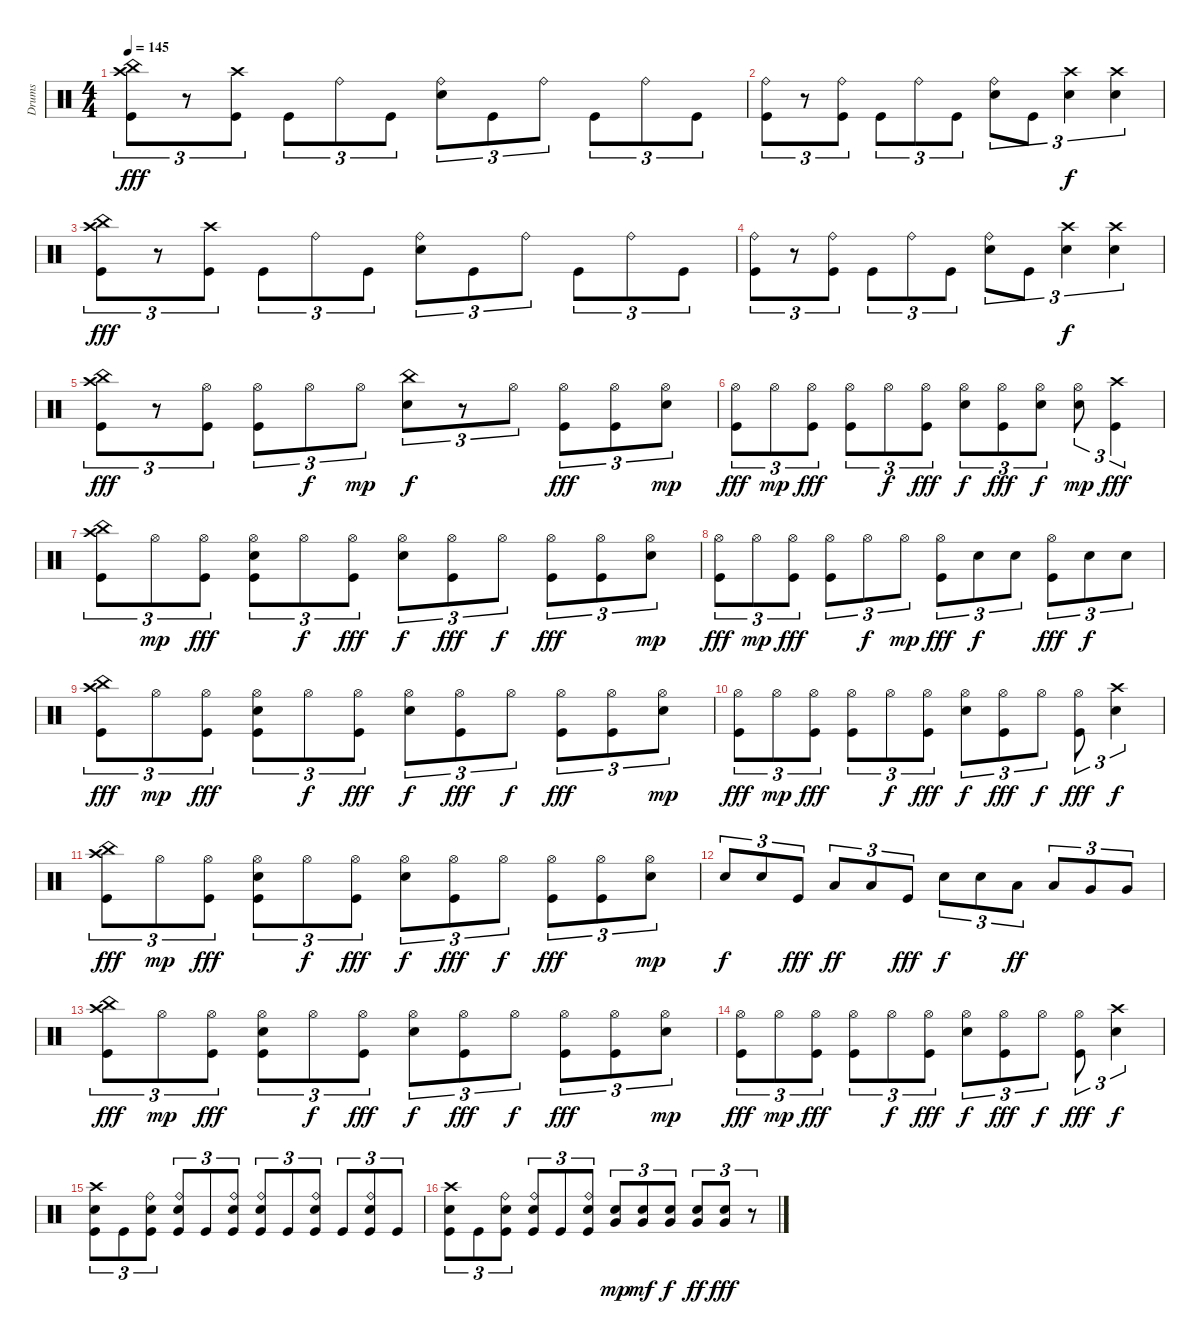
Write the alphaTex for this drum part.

\track ("Drums" "Drums") {instrument percussion}
\staff {score}
\articulation defaults
\ts (4 4)
\tempo 145
\clef neutral
\ks c
("Crash high (hit)" "China (hit)" "Kick (hit)").8{tu (3 2) dy fff} r.8{tu (3 2)} ("Crash high (hit)" "Kick (hit)").8{tu (3 2)} "Kick (hit)".8{tu (3 2)} "Ride (bell)".8{tu (3 2)} "Kick (hit)".8{tu (3 2)} ("Ride (bell)" "Electric Snare (hit)").8{tu (3 2)} "Kick (hit)".8{tu (3 2)} "Ride (bell)".8{tu (3 2)} "Kick (hit)".8{tu (3 2)} "Ride (bell)".8{tu (3 2)} "Kick (hit)".8{tu (3 2)} |
("Ride (bell)" "Kick (hit)").8{tu (3 2)} r.8{tu (3 2)} ("Ride (bell)" "Kick (hit)").8{tu (3 2)} "Kick (hit)".8{tu (3 2)} "Ride (bell)".8{tu (3 2)} "Kick (hit)".8{tu (3 2)} ("Ride (bell)" "Electric Snare (hit)").8{tu (3 2)} "Kick (hit)".8{tu (3 2)} ("Crash high (hit)" "Electric Snare (hit)").4{tu (3 2) dy f} ("Crash high (hit)" "Electric Snare (hit)").4{tu (3 2)} |
("Crash high (hit)" "China (hit)" "Kick (hit)").8{tu (3 2) dy fff} r.8{tu (3 2)} ("Crash high (hit)" "Kick (hit)").8{tu (3 2)} "Kick (hit)".8{tu (3 2)} "Ride (bell)".8{tu (3 2)} "Kick (hit)".8{tu (3 2)} ("Ride (bell)" "Electric Snare (hit)").8{tu (3 2)} "Kick (hit)".8{tu (3 2)} "Ride (bell)".8{tu (3 2)} "Kick (hit)".8{tu (3 2)} "Ride (bell)".8{tu (3 2)} "Kick (hit)".8{tu (3 2)} |
("Ride (bell)" "Kick (hit)").8{tu (3 2)} r.8{tu (3 2)} ("Ride (bell)" "Kick (hit)").8{tu (3 2)} "Kick (hit)".8{tu (3 2)} "Ride (bell)".8{tu (3 2)} "Kick (hit)".8{tu (3 2)} ("Ride (bell)" "Electric Snare (hit)").8{tu (3 2)} "Kick (hit)".8{tu (3 2)} ("Crash high (hit)" "Electric Snare (hit)").4{tu (3 2) dy f} ("Crash high (hit)" "Electric Snare (hit)").4{tu (3 2)} |
("Crash high (hit)" "China (hit)" "Kick (hit)").8{tu (3 2) dy fff} r.8{tu (3 2)} ("Hi-Hat (open)" "Kick (hit)").8{tu (3 2)} ("Hi-Hat (open)" "Kick (hit)").8{tu (3 2)} "Hi-Hat (open)".8{tu (3 2) dy f} "Hi-Hat (open)".8{tu (3 2) dy mp} ("China (hit)" "Electric Snare (hit)").8{tu (3 2) dy f} r.8{tu (3 2)} "Hi-Hat (open)".8{tu (3 2)} ("Hi-Hat (open)" "Kick (hit)").8{tu (3 2) dy fff} ("Hi-Hat (open)" "Kick (hit)").8{tu (3 2)} ("Hi-Hat (open)" "Electric Snare (hit)").8{tu (3 2) dy mp} |
("Hi-Hat (open)" "Kick (hit)").8{tu (3 2) dy fff} "Hi-Hat (open)".8{tu (3 2) dy mp} ("Hi-Hat (open)" "Kick (hit)").8{tu (3 2) dy fff} ("Hi-Hat (open)" "Kick (hit)").8{tu (3 2)} "Hi-Hat (open)".8{tu (3 2) dy f} ("Hi-Hat (open)" "Kick (hit)").8{tu (3 2) dy fff} ("Hi-Hat (open)" "Electric Snare (hit)").8{tu (3 2) dy f} ("Hi-Hat (open)" "Kick (hit)").8{tu (3 2) dy fff} ("Hi-Hat (open)" "Electric Snare (hit)").8{tu (3 2) dy f} ("Hi-Hat (open)" "Electric Snare (hit)").8{tu (3 2) dy mp} ("Crash high (hit)" "Kick (hit)").4{tu (3 2) dy fff} |
("Crash high (hit)" "China (hit)" "Kick (hit)").8{tu (3 2)} "Hi-Hat (open)".8{tu (3 2) dy mp} ("Hi-Hat (open)" "Kick (hit)").8{tu (3 2) dy fff} ("Hi-Hat (open)" "Snare (hit)" "Kick (hit)").8{tu (3 2)} "Hi-Hat (open)".8{tu (3 2) dy f} ("Hi-Hat (open)" "Kick (hit)").8{tu (3 2) dy fff} ("Hi-Hat (open)" "Electric Snare (hit)").8{tu (3 2) dy f} ("Hi-Hat (open)" "Kick (hit)").8{tu (3 2) dy fff} "Hi-Hat (open)".8{tu (3 2) dy f} ("Hi-Hat (open)" "Kick (hit)").8{tu (3 2) dy fff} ("Hi-Hat (open)" "Kick (hit)").8{tu (3 2)} ("Hi-Hat (open)" "Electric Snare (hit)").8{tu (3 2) dy mp} |
("Hi-Hat (open)" "Kick (hit)").8{tu (3 2) dy fff} "Hi-Hat (open)".8{tu (3 2) dy mp} ("Hi-Hat (open)" "Kick (hit)").8{tu (3 2) dy fff} ("Hi-Hat (open)" "Kick (hit)").8{tu (3 2)} "Hi-Hat (open)".8{tu (3 2) dy f} "Hi-Hat (open)".8{tu (3 2) dy mp} ("Hi-Hat (open)" "Kick (hit)").8{tu (3 2) dy fff} "Electric Snare (hit)".8{tu (3 2) dy f} "Electric Snare (hit)".8{tu (3 2)} ("Hi-Hat (open)" "Kick (hit)").8{tu (3 2) dy fff} "Electric Snare (hit)".8{tu (3 2) dy f} "Electric Snare (hit)".8{tu (3 2)} |
("Crash high (hit)" "China (hit)" "Kick (hit)").8{tu (3 2) dy fff} "Hi-Hat (open)".8{tu (3 2) dy mp} ("Hi-Hat (open)" "Kick (hit)").8{tu (3 2) dy fff} ("Hi-Hat (open)" "Snare (hit)" "Kick (hit)").8{tu (3 2)} "Hi-Hat (open)".8{tu (3 2) dy f} ("Hi-Hat (open)" "Kick (hit)").8{tu (3 2) dy fff} ("Hi-Hat (open)" "Electric Snare (hit)").8{tu (3 2) dy f} ("Hi-Hat (open)" "Kick (hit)").8{tu (3 2) dy fff} "Hi-Hat (open)".8{tu (3 2) dy f} ("Hi-Hat (open)" "Kick (hit)").8{tu (3 2) dy fff} ("Hi-Hat (open)" "Kick (hit)").8{tu (3 2)} ("Hi-Hat (open)" "Electric Snare (hit)").8{tu (3 2) dy mp} |
("Hi-Hat (open)" "Kick (hit)").8{tu (3 2) dy fff} "Hi-Hat (open)".8{tu (3 2) dy mp} ("Hi-Hat (open)" "Kick (hit)").8{tu (3 2) dy fff} ("Hi-Hat (open)" "Kick (hit)").8{tu (3 2)} "Hi-Hat (open)".8{tu (3 2) dy f} ("Hi-Hat (open)" "Kick (hit)").8{tu (3 2) dy fff} ("Hi-Hat (open)" "Electric Snare (hit)").8{tu (3 2) dy f} ("Hi-Hat (open)" "Kick (hit)").8{tu (3 2) dy fff} "Hi-Hat (open)".8{tu (3 2) dy f} ("Hi-Hat (open)" "Kick (hit)").8{tu (3 2) dy fff} ("Crash high (hit)" "Electric Snare (hit)").4{tu (3 2) dy f} |
("Crash high (hit)" "China (hit)" "Kick (hit)").8{tu (3 2) dy fff} "Hi-Hat (open)".8{tu (3 2) dy mp} ("Hi-Hat (open)" "Kick (hit)").8{tu (3 2) dy fff} ("Hi-Hat (open)" "Snare (hit)" "Kick (hit)").8{tu (3 2)} "Hi-Hat (open)".8{tu (3 2) dy f} ("Hi-Hat (open)" "Kick (hit)").8{tu (3 2) dy fff} ("Hi-Hat (open)" "Electric Snare (hit)").8{tu (3 2) dy f} ("Hi-Hat (open)" "Kick (hit)").8{tu (3 2) dy fff} "Hi-Hat (open)".8{tu (3 2) dy f} ("Hi-Hat (open)" "Kick (hit)").8{tu (3 2) dy fff} ("Hi-Hat (open)" "Kick (hit)").8{tu (3 2)} ("Hi-Hat (open)" "Electric Snare (hit)").8{tu (3 2) dy mp} |
"Electric Snare (hit)".8{tu (3 2) dy f} "Electric Snare (hit)".8{tu (3 2)} "Kick (hit)".8{tu (3 2) dy fff} "Low Tom (hit)".8{tu (3 2) dy ff} "Low Tom (hit)".8{tu (3 2)} "Kick (hit)".8{tu (3 2) dy fff} "Electric Snare (hit)".8{tu (3 2) dy f} "Electric Snare (hit)".8{tu (3 2)} "Low Tom (hit)".8{tu (3 2) dy ff} "Low Tom (hit)".8{tu (3 2)} "Very Low Tom (hit)".8{tu (3 2)} "Very Low Tom (hit)".8{tu (3 2)} |
("Crash high (hit)" "China (hit)" "Kick (hit)").8{tu (3 2) dy fff} "Hi-Hat (open)".8{tu (3 2) dy mp} ("Hi-Hat (open)" "Kick (hit)").8{tu (3 2) dy fff} ("Hi-Hat (open)" "Snare (hit)" "Kick (hit)").8{tu (3 2)} "Hi-Hat (open)".8{tu (3 2) dy f} ("Hi-Hat (open)" "Kick (hit)").8{tu (3 2) dy fff} ("Hi-Hat (open)" "Electric Snare (hit)").8{tu (3 2) dy f} ("Hi-Hat (open)" "Kick (hit)").8{tu (3 2) dy fff} "Hi-Hat (open)".8{tu (3 2) dy f} ("Hi-Hat (open)" "Kick (hit)").8{tu (3 2) dy fff} ("Hi-Hat (open)" "Kick (hit)").8{tu (3 2)} ("Hi-Hat (open)" "Electric Snare (hit)").8{tu (3 2) dy mp} |
("Hi-Hat (open)" "Kick (hit)").8{tu (3 2) dy fff} "Hi-Hat (open)".8{tu (3 2) dy mp} ("Hi-Hat (open)" "Kick (hit)").8{tu (3 2) dy fff} ("Hi-Hat (open)" "Kick (hit)").8{tu (3 2)} "Hi-Hat (open)".8{tu (3 2) dy f} ("Hi-Hat (open)" "Kick (hit)").8{tu (3 2) dy fff} ("Hi-Hat (open)" "Electric Snare (hit)").8{tu (3 2) dy f} ("Hi-Hat (open)" "Kick (hit)").8{tu (3 2) dy fff} "Hi-Hat (open)".8{tu (3 2) dy f} ("Hi-Hat (open)" "Kick (hit)").8{tu (3 2) dy fff} ("Crash high (hit)" "Electric Snare (hit)").4{tu (3 2) dy f} |
("Crash high (hit)" "Electric Snare (hit)" "Kick (hit)").8{tu (3 2)} "Kick (hit)".8{tu (3 2)} ("Ride (bell)" "Electric Snare (hit)" "Kick (hit)").8{tu (3 2)} ("Ride (bell)" "Electric Snare (hit)" "Kick (hit)").8{tu (3 2)} "Kick (hit)".8{tu (3 2)} ("Ride (bell)" "Electric Snare (hit)" "Kick (hit)").8{tu (3 2)} ("Ride (bell)" "Electric Snare (hit)" "Kick (hit)").8{tu (3 2)} "Kick (hit)".8{tu (3 2)} ("Ride (bell)" "Electric Snare (hit)" "Kick (hit)").8{tu (3 2)} "Kick (hit)".8{tu (3 2)} ("Ride (bell)" "Electric Snare (hit)" "Kick (hit)").8{tu (3 2)} "Kick (hit)".8{tu (3 2)} |
("Crash high (hit)" "Electric Snare (hit)" "Kick (hit)").8{tu (3 2)} "Kick (hit)".8{tu (3 2)} ("Ride (bell)" "Electric Snare (hit)" "Kick (hit)").8{tu (3 2)} ("Ride (bell)" "Electric Snare (hit)" "Kick (hit)").8{tu (3 2)} "Kick (hit)".8{tu (3 2)} ("Ride (bell)" "Electric Snare (hit)" "Kick (hit)").8{tu (3 2)} ("Very Low Tom (hit)" "Electric Snare (hit)").8{tu (3 2) dy mp} ("Very Low Tom (hit)" "Electric Snare (hit)").8{tu (3 2) dy mf} ("Very Low Tom (hit)" "Electric Snare (hit)").8{tu (3 2) dy f} ("Very Low Tom (hit)" "Electric Snare (hit)").8{tu (3 2) dy ff} ("Very Low Tom (hit)" "Electric Snare (hit)").8{tu (3 2) dy fff} r.8{tu (3 2)}
